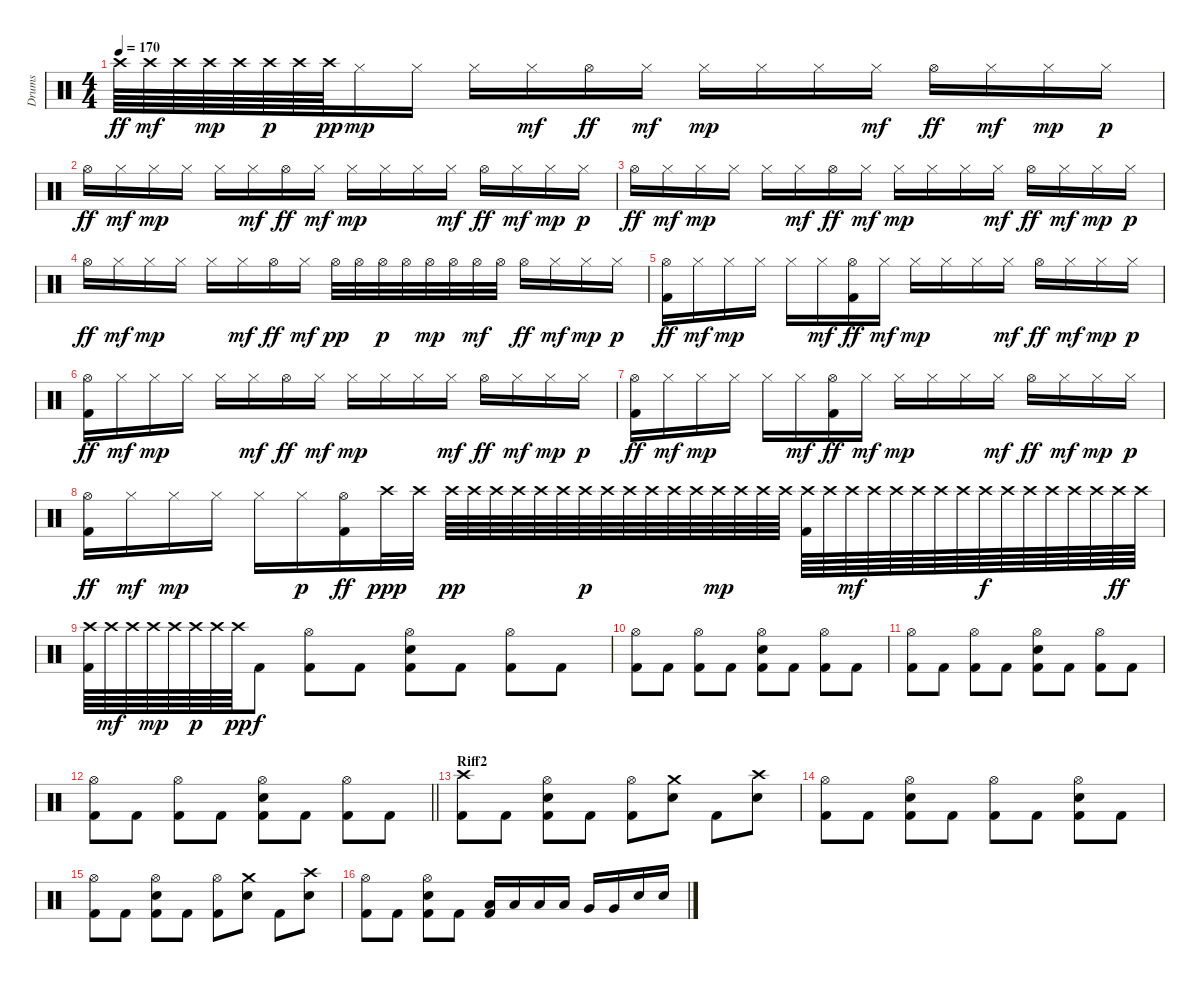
\track ("Drums" "Drums") {instrument percussion}
\staff {score}
\articulation defaults
\ts (4 4)
\tempo 170
\clef neutral
\ks c "Crash high (hit)".64{dy ff} "Crash high (hit)".64{dy mf} "Crash high (hit)".64 "Crash high (hit)".64{dy mp} "Crash high (hit)".64 "Crash high (hit)".64{dy p} "Crash high (hit)".64 "Crash high (hit)".64{dy pp} "Hi-Hat (closed)".16{dy mp} "Hi-Hat (closed)".16 "Hi-Hat (closed)".16 "Hi-Hat (closed)".16{dy mf} "Hi-Hat (open)".16{dy ff} "Hi-Hat (closed)".16{dy mf} "Hi-Hat (closed)".16{dy mp} "Hi-Hat (closed)".16 "Hi-Hat (closed)".16 "Hi-Hat (closed)".16{dy mf} "Hi-Hat (open)".16{dy ff} "Hi-Hat (closed)".16{dy mf} "Hi-Hat (closed)".16{dy mp} "Hi-Hat (closed)".16{dy p}
|
"Hi-Hat (open)".16{dy ff} "Hi-Hat (closed)".16{dy mf} "Hi-Hat (closed)".16{dy mp} "Hi-Hat (closed)".16 "Hi-Hat (closed)".16 "Hi-Hat (closed)".16{dy mf} "Hi-Hat (open)".16{dy ff} "Hi-Hat (closed)".16{dy mf} "Hi-Hat (closed)".16{dy mp} "Hi-Hat (closed)".16 "Hi-Hat (closed)".16 "Hi-Hat (closed)".16{dy mf} "Hi-Hat (open)".16{dy ff} "Hi-Hat (closed)".16{dy mf} "Hi-Hat (closed)".16{dy mp} "Hi-Hat (closed)".16{dy p} |
"Hi-Hat (open)".16{dy ff} "Hi-Hat (closed)".16{dy mf} "Hi-Hat (closed)".16{dy mp} "Hi-Hat (closed)".16 "Hi-Hat (closed)".16 "Hi-Hat (closed)".16{dy mf} "Hi-Hat (open)".16{dy ff} "Hi-Hat (closed)".16{dy mf} "Hi-Hat (closed)".16{dy mp} "Hi-Hat (closed)".16 "Hi-Hat (closed)".16 "Hi-Hat (closed)".16{dy mf} "Hi-Hat (open)".16{dy ff} "Hi-Hat (closed)".16{dy mf} "Hi-Hat (closed)".16{dy mp} "Hi-Hat (closed)".16{dy p} |
"Hi-Hat (open)".16{dy ff} "Hi-Hat (closed)".16{dy mf} "Hi-Hat (closed)".16{dy mp} "Hi-Hat (closed)".16 "Hi-Hat (closed)".16 "Hi-Hat (closed)".16{dy mf} "Hi-Hat (open)".16{dy ff} "Hi-Hat (closed)".16{dy mf} "Hi-Hat (open)".32{dy pp} "Hi-Hat (open)".32 "Hi-Hat (open)".32{dy p} "Hi-Hat (open)".32 "Hi-Hat (open)".32{dy mp} "Hi-Hat (open)".32 "Hi-Hat (open)".32{dy mf} "Hi-Hat (open)".32 "Hi-Hat (open)".16{dy ff} "Hi-Hat (closed)".16{dy mf} "Hi-Hat (closed)".16{dy mp} "Hi-Hat (closed)".16{dy p} |
("Kick (hit) 2" "Hi-Hat (open)").16{dy ff} "Hi-Hat (closed)".16{dy mf} "Hi-Hat (closed)".16{dy mp} "Hi-Hat (closed)".16 "Hi-Hat (closed)".16 "Hi-Hat (closed)".16{dy mf} ("Kick (hit) 2" "Hi-Hat (open)").16{dy ff} "Hi-Hat (closed)".16{dy mf} "Hi-Hat (closed)".16{dy mp} "Hi-Hat (closed)".16 "Hi-Hat (closed)".16 "Hi-Hat (closed)".16{dy mf} "Hi-Hat (open)".16{dy ff} "Hi-Hat (closed)".16{dy mf} "Hi-Hat (closed)".16{dy mp} "Hi-Hat (closed)".16{dy p} |
("Kick (hit) 2" "Hi-Hat (open)").16{dy ff} "Hi-Hat (closed)".16{dy mf} "Hi-Hat (closed)".16{dy mp} "Hi-Hat (closed)".16 "Hi-Hat (closed)".16 "Hi-Hat (closed)".16{dy mf} "Hi-Hat (open)".16{dy ff} "Hi-Hat (closed)".16{dy mf} "Hi-Hat (closed)".16{dy mp} "Hi-Hat (closed)".16 "Hi-Hat (closed)".16 "Hi-Hat (closed)".16{dy mf} "Hi-Hat (open)".16{dy ff} "Hi-Hat (closed)".16{dy mf} "Hi-Hat (closed)".16{dy mp} "Hi-Hat (closed)".16{dy p} |
("Kick (hit) 2" "Hi-Hat (open)").16{dy ff} "Hi-Hat (closed)".16{dy mf} "Hi-Hat (closed)".16{dy mp} "Hi-Hat (closed)".16 "Hi-Hat (closed)".16 "Hi-Hat (closed)".16{dy mf} ("Kick (hit) 2" "Hi-Hat (open)").16{dy ff} "Hi-Hat (closed)".16{dy mf} "Hi-Hat (closed)".16{dy mp} "Hi-Hat (closed)".16 "Hi-Hat (closed)".16 "Hi-Hat (closed)".16{dy mf} "Hi-Hat (open)".16{dy ff} "Hi-Hat (closed)".16{dy mf} "Hi-Hat (closed)".16{dy mp} "Hi-Hat (closed)".16{dy p} |
("Kick (hit) 2" "Hi-Hat (open)").16{dy ff} "Hi-Hat (closed)".16{dy mf} "Hi-Hat (closed)".16{dy mp} "Hi-Hat (closed)".16 "Hi-Hat (closed)".16 "Hi-Hat (closed)".16{dy p} ("Kick (hit) 2" "Hi-Hat (open)").16{dy ff} "Crash high (hit)".32{dy ppp} "Crash high (hit)".32 "Crash high (hit)".64{dy pp} "Crash high (hit)".64 "Crash high (hit)".64 "Crash high (hit)".64 "Crash high (hit)".64 "Crash high (hit)".64 "Crash high (hit)".64{dy p} "Crash high (hit)".64 "Crash high (hit)".64 "Crash high (hit)".64 "Crash high (hit)".64 "Crash high (hit)".64 "Crash high (hit)".64{dy mp} "Crash high (hit)".64 "Crash high (hit)".64 "Crash high (hit)".64 ("Kick (hit) 2" "Crash high (hit)").64 "Crash high (hit)".64 "Crash high (hit)".64{dy mf} "Crash high (hit)".64 "Crash high (hit)".64 "Crash high (hit)".64 "Crash high (hit)".64 "Crash high (hit)".64 "Crash high (hit)".64{dy f} "Crash high (hit)".64 "Crash high (hit)".64 "Crash high (hit)".64 "Crash high (hit)".64 "Crash high (hit)".64 "Crash high (hit)".64{dy ff} "Crash high (hit)".64 |
("Kick (hit) 2" "Crash high (hit)").64 "Crash high (hit)".64{dy mf} "Crash high (hit)".64 "Crash high (hit)".64{dy mp} "Crash high (hit)".64 "Crash high (hit)".64{dy p} "Crash high (hit)".64 "Crash high (hit)".64{dy pp} "Kick (hit) 2".8{dy f} ("Kick (hit) 2" "Hi-Hat (open)").8 "Kick (hit) 2".8 ("Kick (hit) 2" "Hi-Hat (open)" "Electric Snare (hit)").8 "Kick (hit) 2".8 ("Kick (hit) 2" "Hi-Hat (open)").8 "Kick (hit) 2".8 |
("Kick (hit) 2" "Hi-Hat (open)").8 "Kick (hit) 2".8 ("Kick (hit) 2" "Hi-Hat (open)").8 "Kick (hit) 2".8 ("Kick (hit) 2" "Hi-Hat (open)" "Electric Snare (hit)").8 "Kick (hit) 2".8 ("Kick (hit) 2" "Hi-Hat (open)").8 "Kick (hit) 2".8 |
("Kick (hit) 2" "Hi-Hat (open)").8 "Kick (hit) 2".8 ("Kick (hit) 2" "Hi-Hat (open)").8 "Kick (hit) 2".8 ("Kick (hit) 2" "Hi-Hat (open)" "Electric Snare (hit)").8 "Kick (hit) 2".8 ("Kick (hit) 2" "Hi-Hat (open)").8 "Kick (hit) 2".8 |
\barLineRight lightlight
("Kick (hit) 2" "Hi-Hat (open)").8 "Kick (hit) 2".8 ("Kick (hit) 2" "Hi-Hat (open)").8 "Kick (hit) 2".8 ("Kick (hit) 2" "Hi-Hat (open)" "Electric Snare (hit)").8 "Kick (hit) 2".8 ("Kick (hit) 2" "Hi-Hat (open)").8 "Kick (hit) 2".8 |
\section ("" "Riff2")
("Kick (hit) 2" "Crash high (hit)").8 "Kick (hit) 2".8 ("Kick (hit) 2" "Hi-Hat (open)" "Electric Snare (hit)").8 "Kick (hit) 2".8 ("Kick (hit) 2" "Hi-Hat (open)").8 ("Electric Snare (hit)" "Crash medium (hit)").8 "Kick (hit) 2".8 ("Electric Snare (hit)" "Crash high (hit)").8 |
("Kick (hit) 2" "Hi-Hat (open)").8 "Kick (hit) 2".8 ("Kick (hit) 2" "Hi-Hat (open)" "Electric Snare (hit)").8 "Kick (hit) 2".8 ("Kick (hit) 2" "Hi-Hat (open)").8 "Kick (hit) 2".8 ("Kick (hit) 2" "Hi-Hat (open)" "Electric Snare (hit)").8 "Kick (hit) 2".8 |
("Kick (hit) 2" "Hi-Hat (open)").8 "Kick (hit) 2".8 ("Kick (hit) 2" "Hi-Hat (open)" "Electric Snare (hit)").8 "Kick (hit) 2".8 ("Kick (hit) 2" "Hi-Hat (open)").8 ("Electric Snare (hit)" "Crash medium (hit)").8 "Kick (hit) 2".8 ("Electric Snare (hit)" "Crash high (hit)").8 |
("Kick (hit) 2" "Hi-Hat (open)").8 "Kick (hit) 2".8 ("Kick (hit) 2" "Hi-Hat (open)" "Electric Snare (hit)").8 "Kick (hit) 2".8 ("Kick (hit) 2" "Low Tom (hit)").16 "Low Tom (hit)".16 "Low Tom (hit)".16 "Low Tom (hit)".16 "Very Low Tom (hit)".16 "Very Low Tom (hit)".16 "Electric Snare (hit)".16 "Electric Snare (hit)".16
